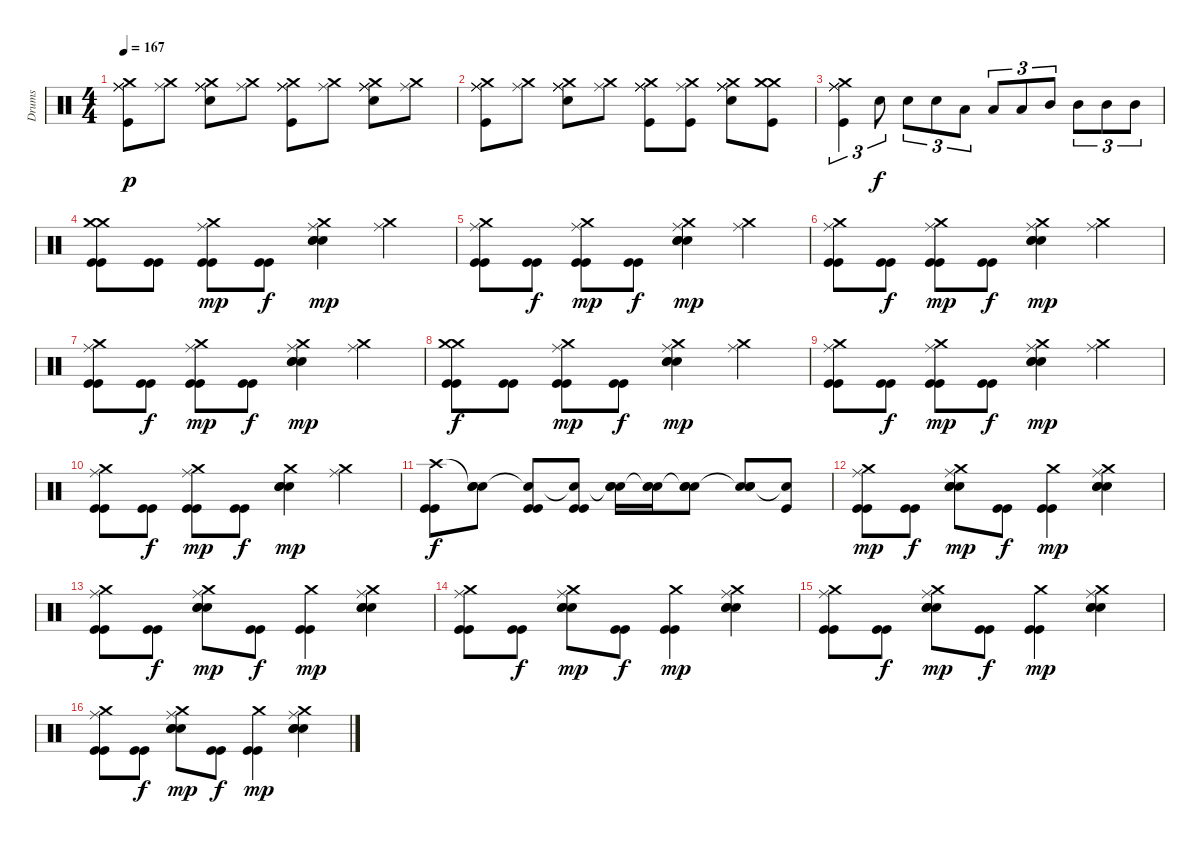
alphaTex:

\track ("Drums" "Drums") {instrument percussion}
\staff {score}
\articulation defaults
\ts (4 4)
\tempo 167
\clef neutral
\ks c
("Ride (middle)" "Crash medium (hit)" "Ride (middle)" "Ride (middle)" "Kick (hit)").8{dy p} ("Ride (middle)" "Crash medium (hit)").8 ("Ride (middle)" "Crash medium (hit)" "Snare (hit) 2" "Ride (middle)" "Ride (middle)").8 ("Ride (middle)" "Crash medium (hit)").8 ("Ride (middle)" "Crash medium (hit)" "Ride (middle)" "Ride (middle)" "Kick (hit)").8 ("Ride (middle)" "Crash medium (hit)").8 ("Ride (middle)" "Crash medium (hit)" "Snare (hit) 2" "Ride (middle)" "Ride (middle)").8 ("Ride (middle)" "Crash medium (hit)").8 |
("Ride (middle)" "Crash medium (hit)" "Ride (middle)" "Ride (middle)" "Kick (hit)").8 ("Ride (middle)" "Crash medium (hit)").8 ("Ride (middle)" "Crash medium (hit)" "Snare (hit) 2" "Ride (middle)" "Ride (middle)").8 ("Ride (middle)" "Crash medium (hit)").8 ("Ride (middle)" "Crash medium (hit)" "Ride (middle)" "Ride (middle)" "Kick (hit)").8 ("Ride (middle)" "Crash medium (hit)" "Kick (hit)").8 ("Ride (middle)" "Crash medium (hit)" "Snare (hit) 2" "Ride (middle)" "Ride (middle)").8 ("Crash medium (hit)" "Crash medium (hit)" "Kick (hit)").8 |
("Ride (middle)" "Crash medium (hit)" "Ride (middle)" "Ride (middle)" "Kick (hit)").4{tu (3 2)} "Snare (hit) 2".8{tu (3 2) dy f} "Snare (hit) 2".8{tu (3 2)} "Snare (hit) 2".8{tu (3 2)} "Low Tom (hit)".8{tu (3 2)} "Low Tom (hit)".8{tu (3 2)} "Low Tom (hit)".8{tu (3 2)} "Mid Tom (hit)".8{tu (3 2)} "Mid Tom (hit)".8{tu (3 2)} "Mid Tom (hit)".8{tu (3 2)} "Mid Tom (hit)".8{tu (3 2)} |
("Crash medium (hit)" "Crash medium (hit)" "Kick (hit)" "Kick (hit)").8 ("Kick (hit)" "Kick (hit)").8 ("Crash medium (hit)" "Ride (middle)" "Kick (hit)" "Kick (hit)").8{dy mp} ("Kick (hit)" "Kick (hit)").8{dy f} ("Crash medium (hit)" "Snare (hit) 2" "Snare (hit) 2" "Snare (hit) 2" "Ride (middle)").4{dy mp} ("Crash medium (hit)" "Ride (middle)").4 |
("Ride (middle)" "Crash medium (hit)" "Kick (hit)" "Kick (hit)").8 ("Kick (hit)" "Kick (hit)").8{dy f} ("Crash medium (hit)" "Ride (middle)" "Kick (hit)" "Kick (hit)").8{dy mp} ("Kick (hit)" "Kick (hit)").8{dy f} ("Crash medium (hit)" "Snare (hit) 2" "Snare (hit) 2" "Snare (hit) 2" "Ride (middle)").4{dy mp} ("Crash medium (hit)" "Ride (middle)").4 |
("Ride (middle)" "Crash medium (hit)" "Kick (hit)" "Kick (hit)").8 ("Kick (hit)" "Kick (hit)").8{dy f} ("Crash medium (hit)" "Ride (middle)" "Kick (hit)" "Kick (hit)").8{dy mp} ("Kick (hit)" "Kick (hit)").8{dy f} ("Crash medium (hit)" "Snare (hit) 2" "Snare (hit) 2" "Snare (hit) 2" "Ride (middle)").4{dy mp} ("Crash medium (hit)" "Ride (middle)").4 |
("Ride (middle)" "Crash medium (hit)" "Kick (hit)" "Kick (hit)").8 ("Kick (hit)" "Kick (hit)").8{dy f} ("Crash medium (hit)" "Ride (middle)" "Kick (hit)" "Kick (hit)").8{dy mp} ("Kick (hit)" "Kick (hit)").8{dy f} ("Crash medium (hit)" "Snare (hit) 2" "Snare (hit) 2" "Snare (hit) 2" "Ride (middle)").4{dy mp} ("Crash medium (hit)" "Ride (middle)").4 |
("Crash medium (hit)" "Crash medium (hit)" "Kick (hit)" "Kick (hit)").8{dy f} ("Kick (hit)" "Kick (hit)").8 ("Crash medium (hit)" "Ride (middle)" "Kick (hit)" "Kick (hit)").8{dy mp} ("Kick (hit)" "Kick (hit)").8{dy f} ("Crash medium (hit)" "Snare (hit) 2" "Snare (hit) 2" "Snare (hit) 2" "Ride (middle)").4{dy mp} ("Crash medium (hit)" "Ride (middle)").4 |
("Ride (middle)" "Crash medium (hit)" "Kick (hit)" "Kick (hit)").8 ("Kick (hit)" "Kick (hit)").8{dy f} ("Crash medium (hit)" "Ride (middle)" "Kick (hit)" "Kick (hit)").8{dy mp} ("Kick (hit)" "Kick (hit)").8{dy f} ("Crash medium (hit)" "Snare (hit) 2" "Snare (hit) 2" "Snare (hit) 2" "Ride (middle)").4{dy mp} ("Crash medium (hit)" "Ride (middle)").4 |
("Ride (middle)" "Crash medium (hit)" "Kick (hit)" "Kick (hit)").8 ("Kick (hit)" "Kick (hit)").8{dy f} ("Crash medium (hit)" "Ride (middle)" "Kick (hit)" "Kick (hit)").8{dy mp} ("Kick (hit)" "Kick (hit)").8{dy f} ("Crash medium (hit)" "Snare (hit) 2" "Snare (hit) 2" "Snare (hit) 2").4{dy mp} ("Crash medium (hit)" "Ride (middle)").4 |
("Crash high (hit)" "Kick (hit)" "Kick (hit)").8{dy f} ("Snare (hit)"{t} "Snare (hit) 2" "Snare (hit) 2").8 ("Snare (hit)"{t} "Kick (hit)" "Kick (hit)").8 ("Snare (hit)"{t} "Kick (hit)" "Kick (hit)").8 ("Snare (hit)"{t} "Snare (hit) 2" "Snare (hit) 2").16 ("Snare (hit)"{t} "Snare (hit) 2" "Snare (hit) 2").16 ("Snare (hit)"{t} "Snare (hit) 2" "Snare (hit) 2").8 ("Snare (hit)"{t} "Snare (hit) 2" "Snare (hit) 2").8 ("Snare (hit)"{t} "Kick (hit)").8 |
("Ride (middle)" "Crash medium (hit)" "Kick (hit)" "Kick (hit)").8{dy mp} ("Kick (hit)" "Kick (hit)").8{dy f} ("Crash medium (hit)" "Snare (hit) 2" "Snare (hit) 2" "Snare (hit) 2" "Ride (middle)").8{dy mp} ("Kick (hit)" "Kick (hit)").8{dy f} ("Crash medium (hit)" "Kick (hit)" "Kick (hit)").4{dy mp} ("Crash medium (hit)" "Snare (hit) 2" "Snare (hit) 2" "Snare (hit) 2" "Ride (middle)").4 |
("Ride (middle)" "Crash medium (hit)" "Kick (hit)" "Kick (hit)").8 ("Kick (hit)" "Kick (hit)").8{dy f} ("Crash medium (hit)" "Snare (hit) 2" "Snare (hit) 2" "Snare (hit) 2" "Ride (middle)").8{dy mp} ("Kick (hit)" "Kick (hit)").8{dy f} ("Crash medium (hit)" "Kick (hit)" "Kick (hit)").4{dy mp} ("Crash medium (hit)" "Snare (hit) 2" "Snare (hit) 2" "Snare (hit) 2" "Ride (middle)").4 |
("Ride (middle)" "Crash medium (hit)" "Kick (hit)" "Kick (hit)").8 ("Kick (hit)" "Kick (hit)").8{dy f} ("Crash medium (hit)" "Snare (hit) 2" "Snare (hit) 2" "Snare (hit) 2" "Ride (middle)").8{dy mp} ("Kick (hit)" "Kick (hit)").8{dy f} ("Crash medium (hit)" "Kick (hit)" "Kick (hit)").4{dy mp} ("Crash medium (hit)" "Snare (hit) 2" "Snare (hit) 2" "Snare (hit) 2" "Ride (middle)").4 |
("Ride (middle)" "Crash medium (hit)" "Kick (hit)" "Kick (hit)").8 ("Kick (hit)" "Kick (hit)").8{dy f} ("Crash medium (hit)" "Snare (hit) 2" "Snare (hit) 2" "Snare (hit) 2" "Ride (middle)").8{dy mp} ("Kick (hit)" "Kick (hit)").8{dy f} ("Crash medium (hit)" "Kick (hit)" "Kick (hit)").4{dy mp} ("Crash medium (hit)" "Snare (hit) 2" "Snare (hit) 2" "Snare (hit) 2" "Ride (middle)").4 |
("Ride (middle)" "Crash medium (hit)" "Kick (hit)" "Kick (hit)").8 ("Kick (hit)" "Kick (hit)").8{dy f} ("Crash medium (hit)" "Snare (hit) 2" "Snare (hit) 2" "Snare (hit) 2" "Ride (middle)").8{dy mp} ("Kick (hit)" "Kick (hit)").8{dy f} ("Crash medium (hit)" "Kick (hit)" "Kick (hit)").4{dy mp} ("Crash medium (hit)" "Snare (hit) 2" "Snare (hit) 2" "Snare (hit) 2" "Ride (middle)").4
